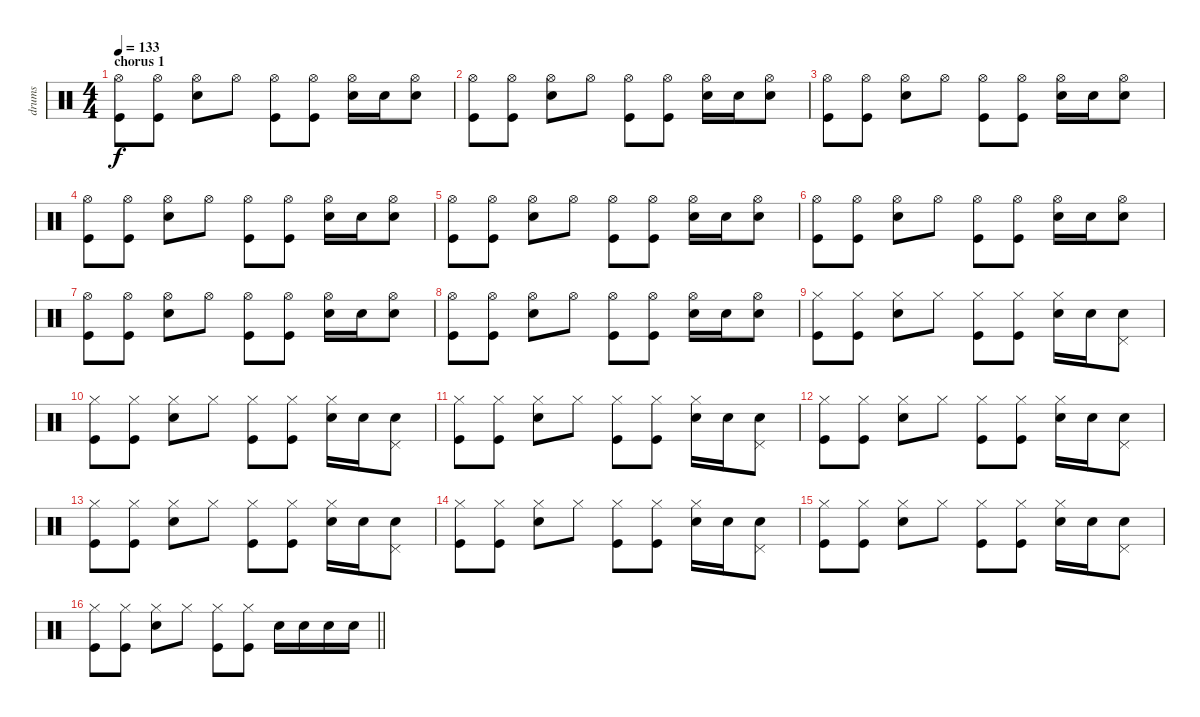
\track ("drums" "drums") {instrument percussion}
\staff {score}
\articulation defaults
\ts (4 4)
\section ("" "chorus 1")
\tempo 133
\clef neutral
\ks c
("Kick (hit)" "Hi-Hat (open)").8{dy f} ("Kick (hit)" "Hi-Hat (open)").8 ("Electric Snare (hit)" "Hi-Hat (open)").8 "Hi-Hat (open)".8 ("Kick (hit)" "Hi-Hat (open)").8 ("Kick (hit)" "Hi-Hat (open)").8 ("Electric Snare (hit)" "Hi-Hat (open)").16 "Electric Snare (hit)".16 ("Electric Snare (hit)" "Hi-Hat (open)").8 |
("Kick (hit)" "Hi-Hat (open)").8 ("Kick (hit)" "Hi-Hat (open)").8 ("Electric Snare (hit)" "Hi-Hat (open)").8 "Hi-Hat (open)".8 ("Kick (hit)" "Hi-Hat (open)").8 ("Kick (hit)" "Hi-Hat (open)").8 ("Electric Snare (hit)" "Hi-Hat (open)").16 "Electric Snare (hit)".16 ("Electric Snare (hit)" "Hi-Hat (open)").8 |
("Kick (hit)" "Hi-Hat (open)").8 ("Kick (hit)" "Hi-Hat (open)").8 ("Electric Snare (hit)" "Hi-Hat (open)").8 "Hi-Hat (open)".8 ("Kick (hit)" "Hi-Hat (open)").8 ("Kick (hit)" "Hi-Hat (open)").8 ("Electric Snare (hit)" "Hi-Hat (open)").16 "Electric Snare (hit)".16 ("Electric Snare (hit)" "Hi-Hat (open)").8 |
("Kick (hit)" "Hi-Hat (open)").8 ("Kick (hit)" "Hi-Hat (open)").8 ("Electric Snare (hit)" "Hi-Hat (open)").8 "Hi-Hat (open)".8 ("Kick (hit)" "Hi-Hat (open)").8 ("Kick (hit)" "Hi-Hat (open)").8 ("Electric Snare (hit)" "Hi-Hat (open)").16 "Electric Snare (hit)".16 ("Electric Snare (hit)" "Hi-Hat (open)").8 |
("Kick (hit)" "Hi-Hat (open)").8 ("Kick (hit)" "Hi-Hat (open)").8 ("Electric Snare (hit)" "Hi-Hat (open)").8 "Hi-Hat (open)".8 ("Kick (hit)" "Hi-Hat (open)").8 ("Kick (hit)" "Hi-Hat (open)").8 ("Electric Snare (hit)" "Hi-Hat (open)").16 "Electric Snare (hit)".16 ("Electric Snare (hit)" "Hi-Hat (open)").8 |
("Kick (hit)" "Hi-Hat (open)").8 ("Kick (hit)" "Hi-Hat (open)").8 ("Electric Snare (hit)" "Hi-Hat (open)").8 "Hi-Hat (open)".8 ("Kick (hit)" "Hi-Hat (open)").8 ("Kick (hit)" "Hi-Hat (open)").8 ("Electric Snare (hit)" "Hi-Hat (open)").16 "Electric Snare (hit)".16 ("Electric Snare (hit)" "Hi-Hat (open)").8 |
("Kick (hit)" "Hi-Hat (open)").8 ("Kick (hit)" "Hi-Hat (open)").8 ("Electric Snare (hit)" "Hi-Hat (open)").8 "Hi-Hat (open)".8 ("Kick (hit)" "Hi-Hat (open)").8 ("Kick (hit)" "Hi-Hat (open)").8 ("Electric Snare (hit)" "Hi-Hat (open)").16 "Electric Snare (hit)".16 ("Electric Snare (hit)" "Hi-Hat (open)").8 |
("Kick (hit)" "Hi-Hat (open)").8 ("Kick (hit)" "Hi-Hat (open)").8 ("Electric Snare (hit)" "Hi-Hat (open)").8 "Hi-Hat (open)".8 ("Kick (hit)" "Hi-Hat (open)").8 ("Kick (hit)" "Hi-Hat (open)").8 ("Electric Snare (hit)" "Hi-Hat (open)").16 "Electric Snare (hit)".16 ("Electric Snare (hit)" "Hi-Hat (open)").8 |
("Kick (hit)" "Hi-Hat (closed)").8 ("Kick (hit)" "Hi-Hat (closed)").8 ("Electric Snare (hit)" "Hi-Hat (closed)").8 "Hi-Hat (closed)".8 ("Kick (hit)" "Hi-Hat (closed)").8 ("Kick (hit)" "Hi-Hat (closed)").8 ("Electric Snare (hit)" "Hi-Hat (closed)").16 "Electric Snare (hit)".16 ("Electric Snare (hit)" "Pedal Hi-Hat (hit)").8 |
("Kick (hit)" "Hi-Hat (closed)").8 ("Kick (hit)" "Hi-Hat (closed)").8 ("Electric Snare (hit)" "Hi-Hat (closed)").8 "Hi-Hat (closed)".8 ("Kick (hit)" "Hi-Hat (closed)").8 ("Kick (hit)" "Hi-Hat (closed)").8 ("Electric Snare (hit)" "Hi-Hat (closed)").16 "Electric Snare (hit)".16 ("Electric Snare (hit)" "Pedal Hi-Hat (hit)").8 |
("Kick (hit)" "Hi-Hat (closed)").8 ("Kick (hit)" "Hi-Hat (closed)").8 ("Electric Snare (hit)" "Hi-Hat (closed)").8 "Hi-Hat (closed)".8 ("Kick (hit)" "Hi-Hat (closed)").8 ("Kick (hit)" "Hi-Hat (closed)").8 ("Electric Snare (hit)" "Hi-Hat (closed)").16 "Electric Snare (hit)".16 ("Electric Snare (hit)" "Pedal Hi-Hat (hit)").8 |
("Kick (hit)" "Hi-Hat (closed)").8 ("Kick (hit)" "Hi-Hat (closed)").8 ("Electric Snare (hit)" "Hi-Hat (closed)").8 "Hi-Hat (closed)".8 ("Kick (hit)" "Hi-Hat (closed)").8 ("Kick (hit)" "Hi-Hat (closed)").8 ("Electric Snare (hit)" "Hi-Hat (closed)").16 "Electric Snare (hit)".16 ("Electric Snare (hit)" "Pedal Hi-Hat (hit)").8 |
("Kick (hit)" "Hi-Hat (closed)").8 ("Kick (hit)" "Hi-Hat (closed)").8 ("Electric Snare (hit)" "Hi-Hat (closed)").8 "Hi-Hat (closed)".8 ("Kick (hit)" "Hi-Hat (closed)").8 ("Kick (hit)" "Hi-Hat (closed)").8 ("Electric Snare (hit)" "Hi-Hat (closed)").16 "Electric Snare (hit)".16 ("Electric Snare (hit)" "Pedal Hi-Hat (hit)").8 |
("Kick (hit)" "Hi-Hat (closed)").8 ("Kick (hit)" "Hi-Hat (closed)").8 ("Electric Snare (hit)" "Hi-Hat (closed)").8 "Hi-Hat (closed)".8 ("Kick (hit)" "Hi-Hat (closed)").8 ("Kick (hit)" "Hi-Hat (closed)").8 ("Electric Snare (hit)" "Hi-Hat (closed)").16 "Electric Snare (hit)".16 ("Electric Snare (hit)" "Pedal Hi-Hat (hit)").8 |
("Kick (hit)" "Hi-Hat (closed)").8 ("Kick (hit)" "Hi-Hat (closed)").8 ("Electric Snare (hit)" "Hi-Hat (closed)").8 "Hi-Hat (closed)".8 ("Kick (hit)" "Hi-Hat (closed)").8 ("Kick (hit)" "Hi-Hat (closed)").8 ("Electric Snare (hit)" "Hi-Hat (closed)").16 "Electric Snare (hit)".16 ("Electric Snare (hit)" "Pedal Hi-Hat (hit)").8 |
\barLineRight lightlight
("Kick (hit)" "Hi-Hat (closed)").8 ("Kick (hit)" "Hi-Hat (closed)").8 ("Electric Snare (hit)" "Hi-Hat (closed)").8 "Hi-Hat (closed)".8 ("Kick (hit)" "Hi-Hat (closed)").8 ("Kick (hit)" "Hi-Hat (closed)").8 "Electric Snare (hit)".16{volume 16} "Electric Snare (hit)".16 "Electric Snare (hit)".16 "Electric Snare (hit)".16
